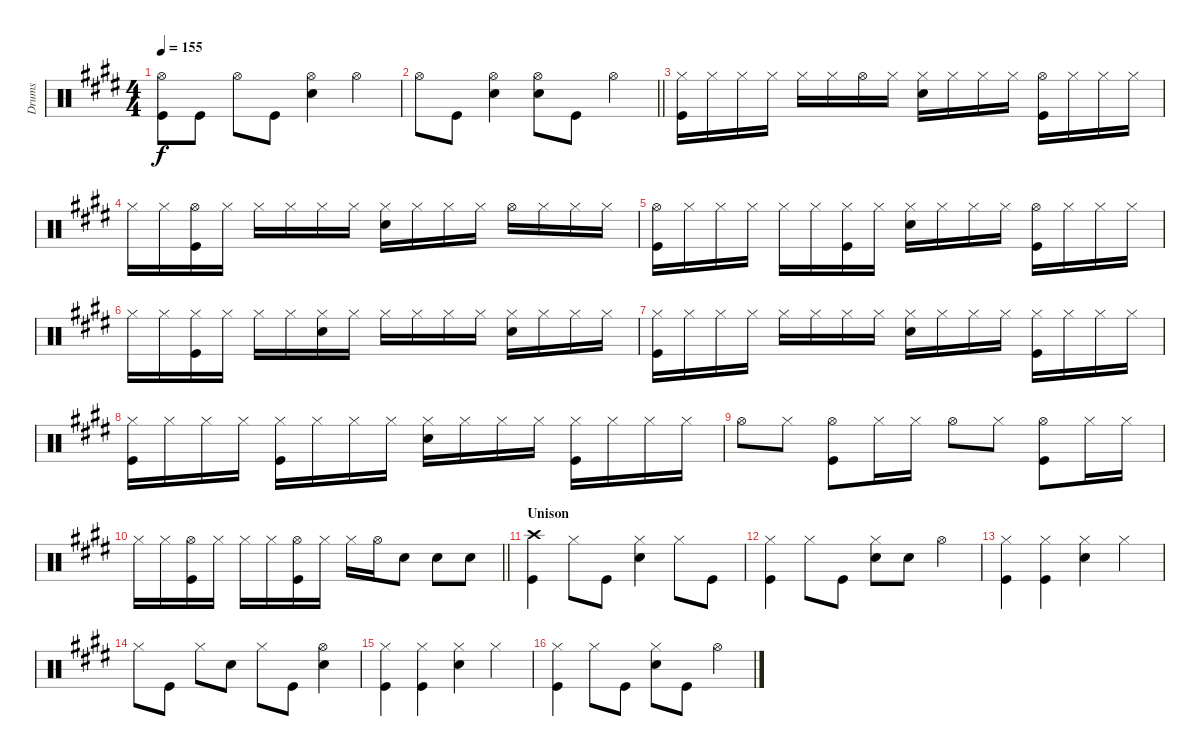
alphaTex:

\track ("Drums" "Drums") {instrument percussion}
\staff {score}
\articulation defaults
\ts (4 4)
\tempo 155
\clef neutral
\ks e
("Hi-Hat (open)" "Kick (hit)").8{dy f} "Kick (hit)".8 "Hi-Hat (open)".8 "Kick (hit)".8 ("Hi-Hat (open)" "Snare (hit) 2").4 "Hi-Hat (open)".4 |
\barLineRight lightlight "Hi-Hat (open)".8 "Kick (hit)".8
("Hi-Hat (open)" "Snare (hit) 2").4 ("Hi-Hat (open)" "Snare (hit) 2").8 "Kick (hit)".8 "Hi-Hat (open)".4 |
("Hi-Hat (closed)" "Kick (hit)").16 "Hi-Hat (closed)".16 "Hi-Hat (closed)".16 "Hi-Hat (closed)".16 "Hi-Hat (closed)".16 "Hi-Hat (closed)".16 "Hi-Hat (open)".16 "Hi-Hat (closed)".16 ("Hi-Hat (closed)" "Snare (hit) 2").16 "Hi-Hat (closed)".16 "Hi-Hat (closed)".16 "Hi-Hat (closed)".16 ("Hi-Hat (open)" "Kick (hit)").16 "Hi-Hat (closed)".16 "Hi-Hat (closed)".16 "Hi-Hat (closed)".16 |
"Hi-Hat (closed)".16 "Hi-Hat (closed)".16 ("Hi-Hat (open)" "Kick (hit)").16 "Hi-Hat (closed)".16 "Hi-Hat (closed)".16 "Hi-Hat (closed)".16 "Hi-Hat (closed)".16 "Hi-Hat (closed)".16 ("Hi-Hat (closed)" "Snare (hit) 2").16 "Hi-Hat (closed)".16 "Hi-Hat (closed)".16 "Hi-Hat (closed)".16 "Hi-Hat (open)".16 "Hi-Hat (closed)".16 "Hi-Hat (closed)".16 "Hi-Hat (closed)".16 |
("Hi-Hat (open)" "Kick (hit)").16 "Hi-Hat (closed)".16 "Hi-Hat (closed)".16 "Hi-Hat (closed)".16 "Hi-Hat (closed)".16 "Hi-Hat (closed)".16 ("Hi-Hat (closed)" "Kick (hit)").16 "Hi-Hat (closed)".16 ("Hi-Hat (closed)" "Snare (hit) 2").16 "Hi-Hat (closed)".16 "Hi-Hat (closed)".16 "Hi-Hat (closed)".16 ("Hi-Hat (open)" "Kick (hit)").16 "Hi-Hat (closed)".16 "Hi-Hat (closed)".16 "Hi-Hat (closed)".16 |
"Hi-Hat (closed)".16 "Hi-Hat (closed)".16 ("Hi-Hat (closed)" "Kick (hit)").16 "Hi-Hat (closed)".16 "Hi-Hat (closed)".16 "Hi-Hat (closed)".16 ("Hi-Hat (closed)" "Snare (hit) 2").16 "Hi-Hat (closed)".16 "Hi-Hat (closed)".16 "Hi-Hat (closed)".16 "Hi-Hat (closed)".16 "Hi-Hat (closed)".16 ("Hi-Hat (closed)" "Snare (hit) 2").16 "Hi-Hat (closed)".16 "Hi-Hat (closed)".16 "Hi-Hat (closed)".16 |
("Hi-Hat (closed)" "Kick (hit)").16 "Hi-Hat (closed)".16 "Hi-Hat (closed)".16 "Hi-Hat (closed)".16 "Hi-Hat (closed)".16 "Hi-Hat (closed)".16 "Hi-Hat (closed)".16 "Hi-Hat (closed)".16 ("Hi-Hat (closed)" "Snare (hit) 2").16 "Hi-Hat (closed)".16 "Hi-Hat (closed)".16 "Hi-Hat (closed)".16 ("Hi-Hat (closed)" "Kick (hit)").16 "Hi-Hat (closed)".16 "Hi-Hat (closed)".16 "Hi-Hat (closed)".16 |
("Hi-Hat (closed)" "Kick (hit)").16 "Hi-Hat (closed)".16 "Hi-Hat (closed)".16 "Hi-Hat (closed)".16 ("Hi-Hat (closed)" "Kick (hit)").16 "Hi-Hat (closed)".16 "Hi-Hat (closed)".16 "Hi-Hat (closed)".16 ("Hi-Hat (closed)" "Snare (hit) 2").16 "Hi-Hat (closed)".16 "Hi-Hat (closed)".16 "Hi-Hat (closed)".16 ("Hi-Hat (closed)" "Kick (hit)").16 "Hi-Hat (closed)".16 "Hi-Hat (closed)".16 "Hi-Hat (closed)".16 |
"Hi-Hat (open)".8 "Hi-Hat (closed)".8 ("Hi-Hat (open)" "Kick (hit)").8 "Hi-Hat (closed)".16 "Hi-Hat (closed)".16 "Hi-Hat (open)".8 "Hi-Hat (closed)".8 ("Hi-Hat (open)" "Kick (hit)").8 "Hi-Hat (closed)".16 "Hi-Hat (closed)".16 |
\barLineRight lightlight "Hi-Hat (closed)".16 "Hi-Hat (closed)".16
("Hi-Hat (open)" "Kick (hit)").16 "Hi-Hat (closed)".16 "Hi-Hat (closed)".16 "Hi-Hat (closed)".16 ("Hi-Hat (open)" "Kick (hit)").16 "Hi-Hat (closed)".16 "Hi-Hat (closed)".16 "Hi-Hat (open)".16 "Snare (hit) 2".8 "Snare (hit) 2".8 "Snare (hit) 2".8 |
\section ("" "Unison")
("Crash high (hit)" "Kick (hit)").4 "Hi-Hat (closed)".8 "Kick (hit)".8 ("Hi-Hat (closed)" "Snare (hit) 2").4 "Hi-Hat (closed)".8 "Kick (hit)".8 |
("Hi-Hat (closed)" "Kick (hit)").4 "Hi-Hat (closed)".8 "Kick (hit)".8 ("Hi-Hat (closed)" "Snare (hit) 2").8 "Snare (hit) 2".8 "Hi-Hat (open)".4 |
("Hi-Hat (closed)" "Kick (hit)").4 ("Hi-Hat (closed)" "Kick (hit)").4 ("Hi-Hat (closed)" "Snare (hit) 2").4 "Hi-Hat (closed)".4 |
"Hi-Hat (closed)".8 "Kick (hit)".8 "Hi-Hat (closed)".8 "Snare (hit) 2".8 "Hi-Hat (closed)".8 "Kick (hit)".8 ("Hi-Hat (open)" "Snare (hit) 2").4 |
("Hi-Hat (closed)" "Kick (hit)").4 ("Hi-Hat (closed)" "Kick (hit)").4 ("Hi-Hat (closed)" "Snare (hit) 2").4 "Hi-Hat (closed)".4 |
("Hi-Hat (closed)" "Kick (hit)").4 "Hi-Hat (closed)".8 "Kick (hit)".8 ("Hi-Hat (closed)" "Snare (hit) 2").8 "Kick (hit)".8 "Hi-Hat (open)".4
